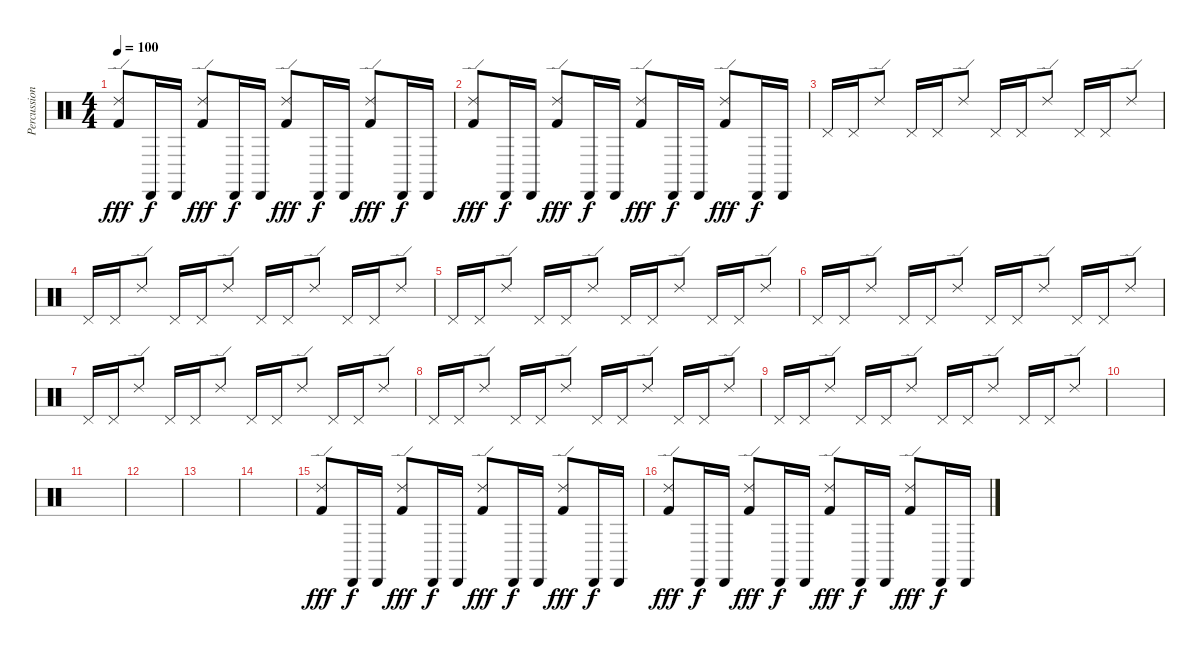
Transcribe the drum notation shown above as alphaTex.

\track ("Percussion" "Percussion") {instrument percussion}
\staff {score}
\articulation defaults
\ts (4 4)
\tempo 100
\clef neutral
\ks c
("Ride (edge) 2" "Kick (hit) 2").8{dy fff} "Cabasa (hit)".16{dy f} "Cabasa (hit)".16 ("Ride (edge) 2" "Kick (hit) 2").8{dy fff} "Cabasa (hit)".16{dy f} "Cabasa (hit)".16 ("Ride (edge) 2" "Kick (hit) 2").8{dy fff} "Cabasa (hit)".16{dy f} "Cabasa (hit)".16 ("Ride (edge) 2" "Kick (hit) 2").8{dy fff} "Cabasa (hit)".16{dy f} "Cabasa (hit)".16 |
("Ride (edge) 2" "Kick (hit) 2").8{dy fff} "Cabasa (hit)".16{dy f} "Cabasa (hit)".16 ("Ride (edge) 2" "Kick (hit) 2").8{dy fff} "Cabasa (hit)".16{dy f} "Cabasa (hit)".16 ("Ride (edge) 2" "Kick (hit) 2").8{dy fff} "Cabasa (hit)".16{dy f} "Cabasa (hit)".16 ("Ride (edge) 2" "Kick (hit) 2").8{dy fff} "Cabasa (hit)".16{dy f} "Cabasa (hit)".16 |
"Pedal Hi-Hat (hit)".16 "Pedal Hi-Hat (hit)".16 "Ride (edge) 2".8 "Pedal Hi-Hat (hit)".16 "Pedal Hi-Hat (hit)".16 "Ride (edge) 2".8 "Pedal Hi-Hat (hit)".16 "Pedal Hi-Hat (hit)".16 "Ride (edge) 2".8 "Pedal Hi-Hat (hit)".16 "Pedal Hi-Hat (hit)".16 "Ride (edge) 2".8 |
"Pedal Hi-Hat (hit)".16 "Pedal Hi-Hat (hit)".16 "Ride (edge) 2".8 "Pedal Hi-Hat (hit)".16 "Pedal Hi-Hat (hit)".16 "Ride (edge) 2".8 "Pedal Hi-Hat (hit)".16 "Pedal Hi-Hat (hit)".16 "Ride (edge) 2".8 "Pedal Hi-Hat (hit)".16 "Pedal Hi-Hat (hit)".16 "Ride (edge) 2".8 |
"Pedal Hi-Hat (hit)".16 "Pedal Hi-Hat (hit)".16 "Ride (edge) 2".8 "Pedal Hi-Hat (hit)".16 "Pedal Hi-Hat (hit)".16 "Ride (edge) 2".8 "Pedal Hi-Hat (hit)".16 "Pedal Hi-Hat (hit)".16 "Ride (edge) 2".8 "Pedal Hi-Hat (hit)".16 "Pedal Hi-Hat (hit)".16 "Ride (edge) 2".8 |
"Pedal Hi-Hat (hit)".16 "Pedal Hi-Hat (hit)".16 "Ride (edge) 2".8 "Pedal Hi-Hat (hit)".16 "Pedal Hi-Hat (hit)".16 "Ride (edge) 2".8 "Pedal Hi-Hat (hit)".16 "Pedal Hi-Hat (hit)".16 "Ride (edge) 2".8 "Pedal Hi-Hat (hit)".16 "Pedal Hi-Hat (hit)".16 "Ride (edge) 2".8 |
"Pedal Hi-Hat (hit)".16 "Pedal Hi-Hat (hit)".16 "Ride (edge) 2".8 "Pedal Hi-Hat (hit)".16 "Pedal Hi-Hat (hit)".16 "Ride (edge) 2".8 "Pedal Hi-Hat (hit)".16 "Pedal Hi-Hat (hit)".16 "Ride (edge) 2".8 "Pedal Hi-Hat (hit)".16 "Pedal Hi-Hat (hit)".16 "Ride (edge) 2".8 |
"Pedal Hi-Hat (hit)".16 "Pedal Hi-Hat (hit)".16 "Ride (edge) 2".8 "Pedal Hi-Hat (hit)".16 "Pedal Hi-Hat (hit)".16 "Ride (edge) 2".8 "Pedal Hi-Hat (hit)".16 "Pedal Hi-Hat (hit)".16 "Ride (edge) 2".8 "Pedal Hi-Hat (hit)".16 "Pedal Hi-Hat (hit)".16 "Ride (edge) 2".8 |
"Pedal Hi-Hat (hit)".16 "Pedal Hi-Hat (hit)".16 "Ride (edge) 2".8 "Pedal Hi-Hat (hit)".16 "Pedal Hi-Hat (hit)".16 "Ride (edge) 2".8 "Pedal Hi-Hat (hit)".16 "Pedal Hi-Hat (hit)".16 "Ride (edge) 2".8 "Pedal Hi-Hat (hit)".16 "Pedal Hi-Hat (hit)".16 "Ride (edge) 2".8 |
|
|
|
|
|
("Ride (edge) 2" "Kick (hit) 2").8{dy fff} "Cabasa (hit)".16{dy f} "Cabasa (hit)".16 ("Ride (edge) 2" "Kick (hit) 2").8{dy fff} "Cabasa (hit)".16{dy f} "Cabasa (hit)".16 ("Ride (edge) 2" "Kick (hit) 2").8{dy fff} "Cabasa (hit)".16{dy f} "Cabasa (hit)".16 ("Ride (edge) 2" "Kick (hit) 2").8{dy fff} "Cabasa (hit)".16{dy f} "Cabasa (hit)".16 |
("Ride (edge) 2" "Kick (hit) 2").8{dy fff} "Cabasa (hit)".16{dy f} "Cabasa (hit)".16 ("Ride (edge) 2" "Kick (hit) 2").8{dy fff} "Cabasa (hit)".16{dy f} "Cabasa (hit)".16 ("Ride (edge) 2" "Kick (hit) 2").8{dy fff} "Cabasa (hit)".16{dy f} "Cabasa (hit)".16 ("Ride (edge) 2" "Kick (hit) 2").8{dy fff} "Cabasa (hit)".16{dy f} "Cabasa (hit)".16
